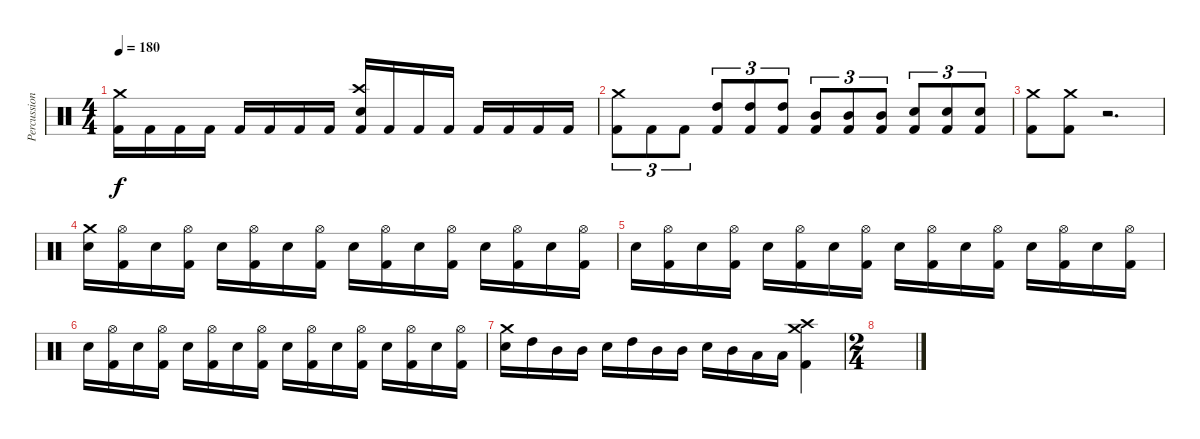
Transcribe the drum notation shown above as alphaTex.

\track ("Percussions" "Percussion") {instrument percussion}
\staff {score}
\articulation defaults
\ts (4 4)
\tempo 180
\clef neutral
\ks c
("Crash medium (hit)" "Kick (hit) 2").16{dy f} "Kick (hit) 2".16 "Kick (hit) 2".16 "Kick (hit) 2".16 "Kick (hit) 2".16 "Kick (hit) 2".16 "Kick (hit) 2".16 "Kick (hit) 2".16 ("Crash high (hit)" "Electric Snare (hit)" "Kick (hit) 2").16 "Kick (hit) 2".16 "Kick (hit) 2".16 "Kick (hit) 2".16 "Kick (hit) 2".16 "Kick (hit) 2".16 "Kick (hit) 2".16 "Kick (hit) 2".16 |
("Crash medium (hit)" "Kick (hit) 2").8{tu (3 2)} "Kick (hit) 2".8{tu (3 2)} "Kick (hit) 2".8{tu (3 2)} ("High Tom (hit)" "Kick (hit) 2").8{tu (3 2)} ("High Tom (hit)" "Kick (hit) 2").8{tu (3 2)} ("High Tom (hit)" "Kick (hit) 2").8{tu (3 2)} ("Mid Tom (hit)" "Kick (hit) 2").8{tu (3 2)} ("Mid Tom (hit)" "Kick (hit) 2").8{tu (3 2)} ("Mid Tom (hit)" "Kick (hit) 2").8{tu (3 2)} ("Electric Snare (hit)" "Kick (hit) 2").8{tu (3 2)} ("Electric Snare (hit)" "Kick (hit) 2").8{tu (3 2)} ("Electric Snare (hit)" "Kick (hit) 2").8{tu (3 2)} |
("Crash medium (hit)" "Kick (hit) 2").8 ("Crash medium (hit)" "Kick (hit) 2").8 r.2{d} |
("Crash medium (hit)" "Electric Snare (hit)").16 ("Hi-Hat (open)" "Kick (hit) 2").16 "Electric Snare (hit)".16 ("Hi-Hat (open)" "Kick (hit) 2").16 "Electric Snare (hit)".16 ("Hi-Hat (open)" "Kick (hit) 2").16 "Electric Snare (hit)".16 ("Hi-Hat (open)" "Kick (hit) 2").16 "Electric Snare (hit)".16 ("Hi-Hat (open)" "Kick (hit) 2").16 "Electric Snare (hit)".16 ("Hi-Hat (open)" "Kick (hit) 2").16 "Electric Snare (hit)".16 ("Hi-Hat (open)" "Kick (hit) 2").16 "Electric Snare (hit)".16 ("Hi-Hat (open)" "Kick (hit) 2").16 |
"Electric Snare (hit)".16 ("Hi-Hat (open)" "Kick (hit) 2").16 "Electric Snare (hit)".16 ("Hi-Hat (open)" "Kick (hit) 2").16 "Electric Snare (hit)".16 ("Hi-Hat (open)" "Kick (hit) 2").16 "Electric Snare (hit)".16 ("Hi-Hat (open)" "Kick (hit) 2").16 "Electric Snare (hit)".16 ("Hi-Hat (open)" "Kick (hit) 2").16 "Electric Snare (hit)".16 ("Hi-Hat (open)" "Kick (hit) 2").16 "Electric Snare (hit)".16 ("Hi-Hat (open)" "Kick (hit) 2").16 "Electric Snare (hit)".16 ("Hi-Hat (open)" "Kick (hit) 2").16 |
"Electric Snare (hit)".16 ("Hi-Hat (open)" "Kick (hit) 2").16 "Electric Snare (hit)".16 ("Hi-Hat (open)" "Kick (hit) 2").16 "Electric Snare (hit)".16 ("Hi-Hat (open)" "Kick (hit) 2").16 "Electric Snare (hit)".16 ("Hi-Hat (open)" "Kick (hit) 2").16 "Electric Snare (hit)".16 ("Hi-Hat (open)" "Kick (hit) 2").16 "Electric Snare (hit)".16 ("Hi-Hat (open)" "Kick (hit) 2").16 "Electric Snare (hit)".16 ("Hi-Hat (open)" "Kick (hit) 2").16 "Electric Snare (hit)".16 ("Hi-Hat (open)" "Kick (hit) 2").16 |
("Crash medium (hit)" "Electric Snare (hit)").16 "High Tom (hit)".16 "Mid Tom (hit)".16 "Mid Tom (hit)".16 "Electric Snare (hit)".16 "High Tom (hit)".16 "Mid Tom (hit)".16 "Mid Tom (hit)".16 "Electric Snare (hit)".16 "Mid Tom (hit)".16 "Low Tom (hit)".16 "Low Tom (hit)".16 ("Crash medium (hit)" "Crash high (hit)" "Kick (hit) 2").4 |
\ts (2 4)
